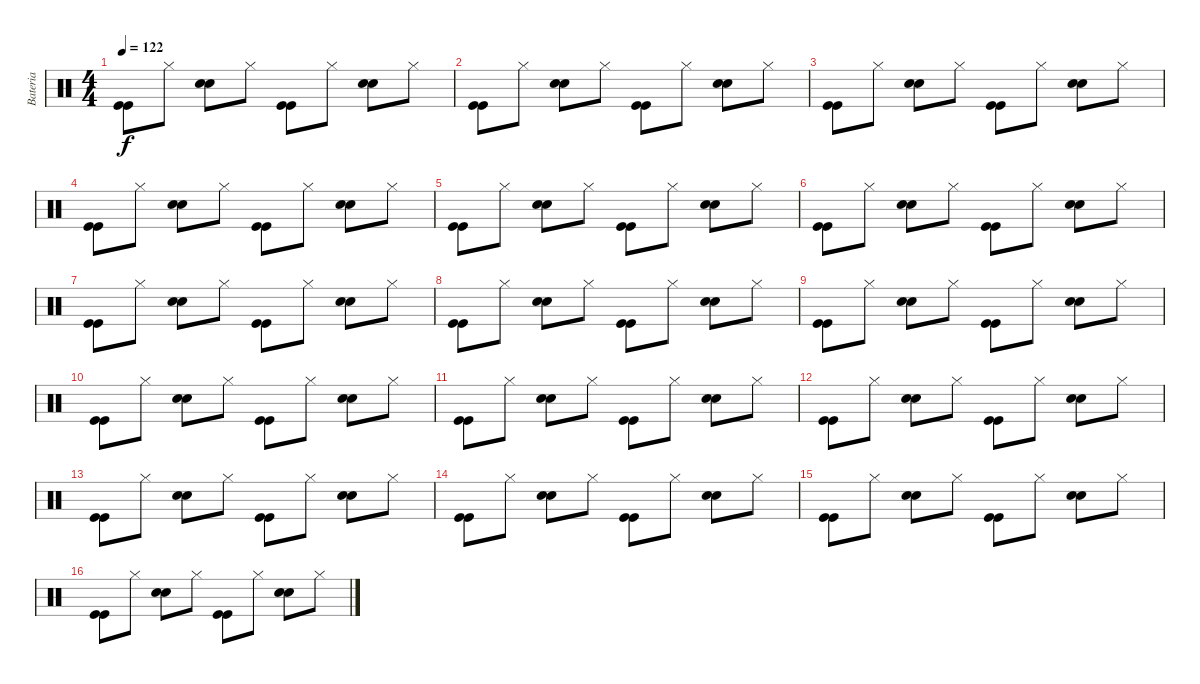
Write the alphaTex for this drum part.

\track ("Bateria" "Bateria") {instrument percussion}
\staff {score}
\articulation defaults
\ts (4 4)
\tempo 122
\clef neutral
\ks c
("Kick (hit)" "Kick (hit)").8{dy f} "Hi-Hat (closed)".8 ("Snare (hit) 2" "Snare (hit) 2").8 "Hi-Hat (closed)".8 ("Kick (hit)" "Kick (hit)").8 "Hi-Hat (closed)".8 ("Snare (hit) 2" "Snare (hit) 2").8 "Hi-Hat (closed)".8 |
("Kick (hit)" "Kick (hit)").8 "Hi-Hat (closed)".8 ("Snare (hit) 2" "Snare (hit) 2").8 "Hi-Hat (closed)".8 ("Kick (hit)" "Kick (hit)").8 "Hi-Hat (closed)".8 ("Snare (hit) 2" "Snare (hit) 2").8 "Hi-Hat (closed)".8 |
("Kick (hit)" "Kick (hit)").8 "Hi-Hat (closed)".8 ("Snare (hit) 2" "Snare (hit) 2").8 "Hi-Hat (closed)".8 ("Kick (hit)" "Kick (hit)").8 "Hi-Hat (closed)".8 ("Snare (hit) 2" "Snare (hit) 2").8 "Hi-Hat (closed)".8 |
("Kick (hit)" "Kick (hit)").8 "Hi-Hat (closed)".8 ("Snare (hit) 2" "Snare (hit) 2").8 "Hi-Hat (closed)".8 ("Kick (hit)" "Kick (hit)").8 "Hi-Hat (closed)".8 ("Snare (hit) 2" "Snare (hit) 2").8 "Hi-Hat (closed)".8 |
("Kick (hit)" "Kick (hit)").8 "Hi-Hat (closed)".8 ("Snare (hit) 2" "Snare (hit) 2").8 "Hi-Hat (closed)".8 ("Kick (hit)" "Kick (hit)").8 "Hi-Hat (closed)".8 ("Snare (hit) 2" "Snare (hit) 2").8 "Hi-Hat (closed)".8 |
("Kick (hit)" "Kick (hit)").8 "Hi-Hat (closed)".8 ("Snare (hit) 2" "Snare (hit) 2").8 "Hi-Hat (closed)".8 ("Kick (hit)" "Kick (hit)").8 "Hi-Hat (closed)".8 ("Snare (hit) 2" "Snare (hit) 2").8 "Hi-Hat (closed)".8 |
("Kick (hit)" "Kick (hit)").8 "Hi-Hat (closed)".8 ("Snare (hit) 2" "Snare (hit) 2").8 "Hi-Hat (closed)".8 ("Kick (hit)" "Kick (hit)").8 "Hi-Hat (closed)".8 ("Snare (hit) 2" "Snare (hit) 2").8 "Hi-Hat (closed)".8 |
("Kick (hit)" "Kick (hit)").8 "Hi-Hat (closed)".8 ("Snare (hit) 2" "Snare (hit) 2").8 "Hi-Hat (closed)".8 ("Kick (hit)" "Kick (hit)").8 "Hi-Hat (closed)".8 ("Snare (hit) 2" "Snare (hit) 2").8 "Hi-Hat (closed)".8 |
("Kick (hit)" "Kick (hit)").8 "Hi-Hat (closed)".8 ("Snare (hit) 2" "Snare (hit) 2").8 "Hi-Hat (closed)".8 ("Kick (hit)" "Kick (hit)").8 "Hi-Hat (closed)".8 ("Snare (hit) 2" "Snare (hit) 2").8 "Hi-Hat (closed)".8 |
("Kick (hit)" "Kick (hit)").8 "Hi-Hat (closed)".8 ("Snare (hit) 2" "Snare (hit) 2").8 "Hi-Hat (closed)".8 ("Kick (hit)" "Kick (hit)").8 "Hi-Hat (closed)".8 ("Snare (hit) 2" "Snare (hit) 2").8 "Hi-Hat (closed)".8 |
("Kick (hit)" "Kick (hit)").8 "Hi-Hat (closed)".8 ("Snare (hit) 2" "Snare (hit) 2").8 "Hi-Hat (closed)".8 ("Kick (hit)" "Kick (hit)").8 "Hi-Hat (closed)".8 ("Snare (hit) 2" "Snare (hit) 2").8 "Hi-Hat (closed)".8 |
("Kick (hit)" "Kick (hit)").8 "Hi-Hat (closed)".8 ("Snare (hit) 2" "Snare (hit) 2").8 "Hi-Hat (closed)".8 ("Kick (hit)" "Kick (hit)").8 "Hi-Hat (closed)".8 ("Snare (hit) 2" "Snare (hit) 2").8 "Hi-Hat (closed)".8 |
("Kick (hit)" "Kick (hit)").8 "Hi-Hat (closed)".8 ("Snare (hit) 2" "Snare (hit) 2").8 "Hi-Hat (closed)".8 ("Kick (hit)" "Kick (hit)").8 "Hi-Hat (closed)".8 ("Snare (hit) 2" "Snare (hit) 2").8 "Hi-Hat (closed)".8 |
("Kick (hit)" "Kick (hit)").8 "Hi-Hat (closed)".8 ("Snare (hit) 2" "Snare (hit) 2").8 "Hi-Hat (closed)".8 ("Kick (hit)" "Kick (hit)").8 "Hi-Hat (closed)".8 ("Snare (hit) 2" "Snare (hit) 2").8 "Hi-Hat (closed)".8 |
("Kick (hit)" "Kick (hit)").8 "Hi-Hat (closed)".8 ("Snare (hit) 2" "Snare (hit) 2").8 "Hi-Hat (closed)".8 ("Kick (hit)" "Kick (hit)").8 "Hi-Hat (closed)".8 ("Snare (hit) 2" "Snare (hit) 2").8 "Hi-Hat (closed)".8 |
("Kick (hit)" "Kick (hit)").8 "Hi-Hat (closed)".8 ("Snare (hit) 2" "Snare (hit) 2").8 "Hi-Hat (closed)".8 ("Kick (hit)" "Kick (hit)").8 "Hi-Hat (closed)".8 ("Snare (hit) 2" "Snare (hit) 2").8 "Hi-Hat (closed)".8
